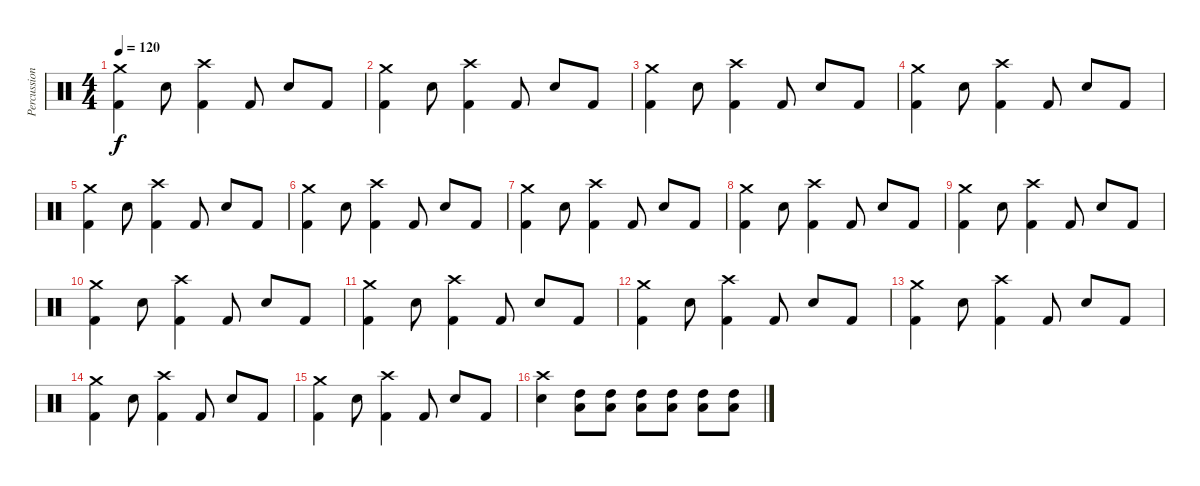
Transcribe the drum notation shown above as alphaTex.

\track ("Percussion" "Percussion") {instrument percussion}
\staff {score}
\articulation defaults
\ts (4 4)
\tempo 120
\clef neutral
\ks c
("Crash medium (hit)" "Kick (hit) 2").4{dy f} "Electric Snare (hit)".8 ("Crash high (hit)" "Kick (hit) 2").4 "Kick (hit) 2".8 "Electric Snare (hit)".8 "Kick (hit) 2".8 |
("Crash medium (hit)" "Kick (hit) 2").4 "Electric Snare (hit)".8 ("Crash high (hit)" "Kick (hit) 2").4 "Kick (hit) 2".8 "Electric Snare (hit)".8 "Kick (hit) 2".8 |
("Crash medium (hit)" "Kick (hit) 2").4 "Electric Snare (hit)".8 ("Crash high (hit)" "Kick (hit) 2").4 "Kick (hit) 2".8 "Electric Snare (hit)".8 "Kick (hit) 2".8 |
("Crash medium (hit)" "Kick (hit) 2").4 "Electric Snare (hit)".8 ("Crash high (hit)" "Kick (hit) 2").4 "Kick (hit) 2".8 "Electric Snare (hit)".8 "Kick (hit) 2".8 |
("Crash medium (hit)" "Kick (hit) 2").4 "Electric Snare (hit)".8 ("Crash high (hit)" "Kick (hit) 2").4 "Kick (hit) 2".8 "Electric Snare (hit)".8 "Kick (hit) 2".8 |
("Crash medium (hit)" "Kick (hit) 2").4 "Electric Snare (hit)".8 ("Crash high (hit)" "Kick (hit) 2").4 "Kick (hit) 2".8 "Electric Snare (hit)".8 "Kick (hit) 2".8 |
("Crash medium (hit)" "Kick (hit) 2").4 "Electric Snare (hit)".8 ("Crash high (hit)" "Kick (hit) 2").4 "Kick (hit) 2".8 "Electric Snare (hit)".8 "Kick (hit) 2".8 |
("Crash medium (hit)" "Kick (hit) 2").4 "Electric Snare (hit)".8 ("Crash high (hit)" "Kick (hit) 2").4 "Kick (hit) 2".8 "Electric Snare (hit)".8 "Kick (hit) 2".8 |
("Crash medium (hit)" "Kick (hit) 2").4 "Electric Snare (hit)".8 ("Crash high (hit)" "Kick (hit) 2").4 "Kick (hit) 2".8 "Electric Snare (hit)".8 "Kick (hit) 2".8 |
("Crash medium (hit)" "Kick (hit) 2").4 "Electric Snare (hit)".8 ("Crash high (hit)" "Kick (hit) 2").4 "Kick (hit) 2".8 "Electric Snare (hit)".8 "Kick (hit) 2".8 |
("Crash medium (hit)" "Kick (hit) 2").4 "Electric Snare (hit)".8 ("Crash high (hit)" "Kick (hit) 2").4 "Kick (hit) 2".8 "Electric Snare (hit)".8 "Kick (hit) 2".8 |
("Crash medium (hit)" "Kick (hit) 2").4 "Electric Snare (hit)".8 ("Crash high (hit)" "Kick (hit) 2").4 "Kick (hit) 2".8 "Electric Snare (hit)".8 "Kick (hit) 2".8 |
("Crash medium (hit)" "Kick (hit) 2").4 "Electric Snare (hit)".8 ("Crash high (hit)" "Kick (hit) 2").4 "Kick (hit) 2".8 "Electric Snare (hit)".8 "Kick (hit) 2".8 |
("Crash medium (hit)" "Kick (hit) 2").4 "Electric Snare (hit)".8 ("Crash high (hit)" "Kick (hit) 2").4 "Kick (hit) 2".8 "Electric Snare (hit)".8 "Kick (hit) 2".8 |
("Crash medium (hit)" "Kick (hit) 2").4 "Electric Snare (hit)".8 ("Crash high (hit)" "Kick (hit) 2").4 "Kick (hit) 2".8 "Electric Snare (hit)".8 "Kick (hit) 2".8 |
("Crash high (hit)" "Electric Snare (hit)").4 ("Low Floor Tom (hit)" "High Tom (hit)").8 ("Low Floor Tom (hit)" "High Tom (hit)").8 ("Low Floor Tom (hit)" "High Tom (hit)").8 ("Low Floor Tom (hit)" "High Tom (hit)").8 ("Low Floor Tom (hit)" "High Tom (hit)").8 ("Low Floor Tom (hit)" "High Tom (hit)").8
